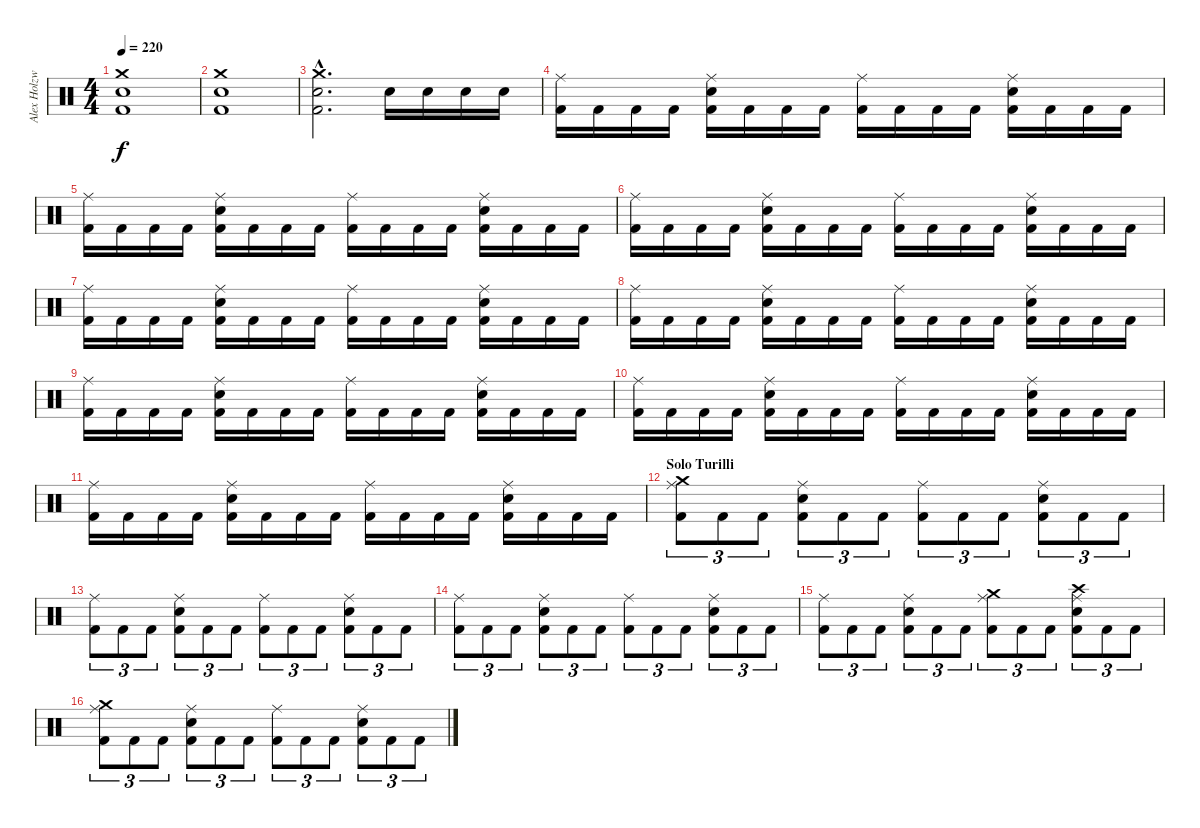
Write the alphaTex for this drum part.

\track ("Alex Holzwarth" "Alex Holzw") {instrument percussion}
\staff {score}
\articulation defaults
\ts (4 4)
\tempo 220
\clef neutral
\ks c
("Crash medium (hit)" "Snare (hit) 2" "Kick (hit) 2").1{dy f} |
("Crash medium (hit)" "Snare (hit) 2" "Kick (hit) 2").1 |
("Crash medium (hit)"{hac} "Snare (hit) 2"{hac} "Kick (hit) 2"{hac}).2{d} "Snare (hit) 2".16 "Snare (hit) 2".16 "Snare (hit) 2".16 "Snare (hit) 2".16 |
("Ride (middle)" "Kick (hit) 2").16 "Kick (hit) 2".16 "Kick (hit) 2".16 "Kick (hit) 2".16 ("Ride (middle)" "Snare (hit) 2" "Kick (hit) 2").16 "Kick (hit) 2".16 "Kick (hit) 2".16 "Kick (hit) 2".16 ("Ride (middle)" "Kick (hit) 2").16 "Kick (hit) 2".16 "Kick (hit) 2".16 "Kick (hit) 2".16 ("Ride (middle)" "Snare (hit) 2" "Kick (hit) 2").16 "Kick (hit) 2".16 "Kick (hit) 2".16 "Kick (hit) 2".16 |
("Ride (middle)" "Kick (hit) 2").16 "Kick (hit) 2".16 "Kick (hit) 2".16 "Kick (hit) 2".16 ("Ride (middle)" "Snare (hit) 2" "Kick (hit) 2").16 "Kick (hit) 2".16 "Kick (hit) 2".16 "Kick (hit) 2".16 ("Ride (middle)" "Kick (hit) 2").16 "Kick (hit) 2".16 "Kick (hit) 2".16 "Kick (hit) 2".16 ("Ride (middle)" "Snare (hit) 2" "Kick (hit) 2").16 "Kick (hit) 2".16 "Kick (hit) 2".16 "Kick (hit) 2".16 |
("Ride (middle)" "Kick (hit) 2").16 "Kick (hit) 2".16 "Kick (hit) 2".16 "Kick (hit) 2".16 ("Ride (middle)" "Snare (hit) 2" "Kick (hit) 2").16 "Kick (hit) 2".16 "Kick (hit) 2".16 "Kick (hit) 2".16 ("Ride (middle)" "Kick (hit) 2").16 "Kick (hit) 2".16 "Kick (hit) 2".16 "Kick (hit) 2".16 ("Ride (middle)" "Snare (hit) 2" "Kick (hit) 2").16 "Kick (hit) 2".16 "Kick (hit) 2".16 "Kick (hit) 2".16 |
("Ride (middle)" "Kick (hit) 2").16 "Kick (hit) 2".16 "Kick (hit) 2".16 "Kick (hit) 2".16 ("Ride (middle)" "Snare (hit) 2" "Kick (hit) 2").16 "Kick (hit) 2".16 "Kick (hit) 2".16 "Kick (hit) 2".16 ("Ride (middle)" "Kick (hit) 2").16 "Kick (hit) 2".16 "Kick (hit) 2".16 "Kick (hit) 2".16 ("Ride (middle)" "Snare (hit) 2" "Kick (hit) 2").16 "Kick (hit) 2".16 "Kick (hit) 2".16 "Kick (hit) 2".16 |
("Ride (middle)" "Kick (hit) 2").16 "Kick (hit) 2".16 "Kick (hit) 2".16 "Kick (hit) 2".16 ("Ride (middle)" "Snare (hit) 2" "Kick (hit) 2").16 "Kick (hit) 2".16 "Kick (hit) 2".16 "Kick (hit) 2".16 ("Ride (middle)" "Kick (hit) 2").16 "Kick (hit) 2".16 "Kick (hit) 2".16 "Kick (hit) 2".16 ("Ride (middle)" "Snare (hit) 2" "Kick (hit) 2").16 "Kick (hit) 2".16 "Kick (hit) 2".16 "Kick (hit) 2".16 |
("Ride (middle)" "Kick (hit) 2").16 "Kick (hit) 2".16 "Kick (hit) 2".16 "Kick (hit) 2".16 ("Ride (middle)" "Snare (hit) 2" "Kick (hit) 2").16 "Kick (hit) 2".16 "Kick (hit) 2".16 "Kick (hit) 2".16 ("Ride (middle)" "Kick (hit) 2").16 "Kick (hit) 2".16 "Kick (hit) 2".16 "Kick (hit) 2".16 ("Ride (middle)" "Snare (hit) 2" "Kick (hit) 2").16 "Kick (hit) 2".16 "Kick (hit) 2".16 "Kick (hit) 2".16 |
("Ride (middle)" "Kick (hit) 2").16 "Kick (hit) 2".16 "Kick (hit) 2".16 "Kick (hit) 2".16 ("Ride (middle)" "Snare (hit) 2" "Kick (hit) 2").16 "Kick (hit) 2".16 "Kick (hit) 2".16 "Kick (hit) 2".16 ("Ride (middle)" "Kick (hit) 2").16 "Kick (hit) 2".16 "Kick (hit) 2".16 "Kick (hit) 2".16 ("Ride (middle)" "Snare (hit) 2" "Kick (hit) 2").16 "Kick (hit) 2".16 "Kick (hit) 2".16 "Kick (hit) 2".16 |
("Ride (middle)" "Kick (hit) 2").16 "Kick (hit) 2".16 "Kick (hit) 2".16 "Kick (hit) 2".16 ("Ride (middle)" "Snare (hit) 2" "Kick (hit) 2").16 "Kick (hit) 2".16 "Kick (hit) 2".16 "Kick (hit) 2".16 ("Ride (middle)" "Kick (hit) 2").16 "Kick (hit) 2".16 "Kick (hit) 2".16 "Kick (hit) 2".16 ("Ride (middle)" "Snare (hit) 2" "Kick (hit) 2").16 "Kick (hit) 2".16 "Kick (hit) 2".16 "Kick (hit) 2".16 |
\section ("" "Solo Turilli")
("Ride (middle)" "Crash medium (hit)" "Kick (hit) 2").8{tu (3 2)} "Kick (hit) 2".8{tu (3 2)} "Kick (hit) 2".8{tu (3 2)} ("Ride (middle)" "Snare (hit) 2" "Kick (hit) 2").8{tu (3 2)} "Kick (hit) 2".8{tu (3 2)} "Kick (hit) 2".8{tu (3 2)} ("Ride (middle)" "Kick (hit) 2").8{tu (3 2)} "Kick (hit) 2".8{tu (3 2)} "Kick (hit) 2".8{tu (3 2)} ("Ride (middle)" "Snare (hit) 2" "Kick (hit) 2").8{tu (3 2)} "Kick (hit) 2".8{tu (3 2)} "Kick (hit) 2".8{tu (3 2)} |
("Ride (middle)" "Kick (hit) 2").8{tu (3 2)} "Kick (hit) 2".8{tu (3 2)} "Kick (hit) 2".8{tu (3 2)} ("Ride (middle)" "Snare (hit) 2" "Kick (hit) 2").8{tu (3 2)} "Kick (hit) 2".8{tu (3 2)} "Kick (hit) 2".8{tu (3 2)} ("Ride (middle)" "Kick (hit) 2").8{tu (3 2)} "Kick (hit) 2".8{tu (3 2)} "Kick (hit) 2".8{tu (3 2)} ("Ride (middle)" "Snare (hit) 2" "Kick (hit) 2").8{tu (3 2)} "Kick (hit) 2".8{tu (3 2)} "Kick (hit) 2".8{tu (3 2)} |
("Ride (middle)" "Kick (hit) 2").8{tu (3 2)} "Kick (hit) 2".8{tu (3 2)} "Kick (hit) 2".8{tu (3 2)} ("Ride (middle)" "Snare (hit) 2" "Kick (hit) 2").8{tu (3 2)} "Kick (hit) 2".8{tu (3 2)} "Kick (hit) 2".8{tu (3 2)} ("Ride (middle)" "Kick (hit) 2").8{tu (3 2)} "Kick (hit) 2".8{tu (3 2)} "Kick (hit) 2".8{tu (3 2)} ("Ride (middle)" "Snare (hit) 2" "Kick (hit) 2").8{tu (3 2)} "Kick (hit) 2".8{tu (3 2)} "Kick (hit) 2".8{tu (3 2)} |
("Ride (middle)" "Kick (hit) 2").8{tu (3 2)} "Kick (hit) 2".8{tu (3 2)} "Kick (hit) 2".8{tu (3 2)} ("Ride (middle)" "Snare (hit) 2" "Kick (hit) 2").8{tu (3 2)} "Kick (hit) 2".8{tu (3 2)} "Kick (hit) 2".8{tu (3 2)} ("Ride (middle)" "Crash medium (hit)" "Kick (hit) 2").8{tu (3 2)} "Kick (hit) 2".8{tu (3 2)} "Kick (hit) 2".8{tu (3 2)} ("Ride (middle)" "Crash high (hit)" "Snare (hit) 2" "Kick (hit) 2").8{tu (3 2)} "Kick (hit) 2".8{tu (3 2)} "Kick (hit) 2".8{tu (3 2)} |
("Ride (middle)" "Crash medium (hit)" "Kick (hit) 2").8{tu (3 2)} "Kick (hit) 2".8{tu (3 2)} "Kick (hit) 2".8{tu (3 2)} ("Ride (middle)" "Snare (hit) 2" "Kick (hit) 2").8{tu (3 2)} "Kick (hit) 2".8{tu (3 2)} "Kick (hit) 2".8{tu (3 2)} ("Ride (middle)" "Kick (hit) 2").8{tu (3 2)} "Kick (hit) 2".8{tu (3 2)} "Kick (hit) 2".8{tu (3 2)} ("Ride (middle)" "Snare (hit) 2" "Kick (hit) 2").8{tu (3 2)} "Kick (hit) 2".8{tu (3 2)} "Kick (hit) 2".8{tu (3 2)}
